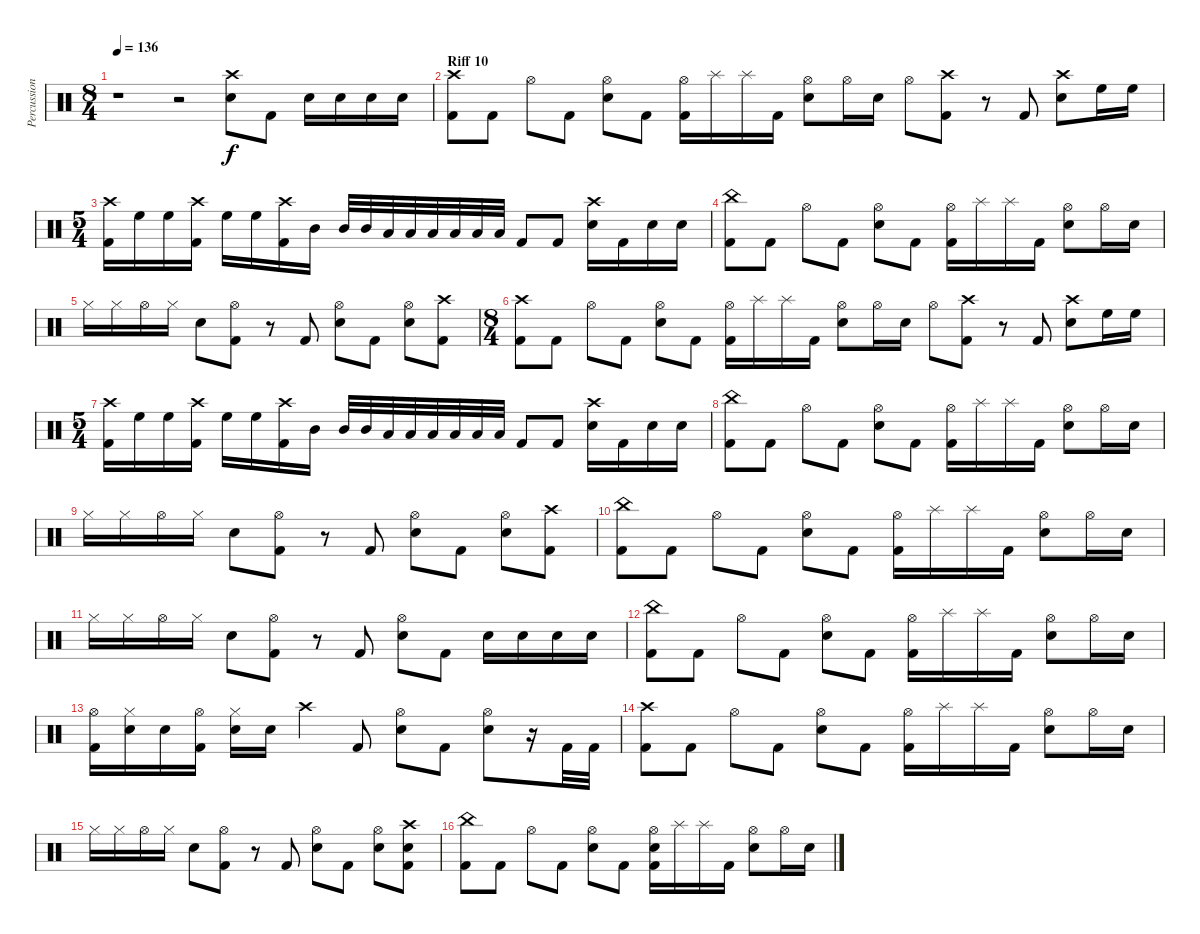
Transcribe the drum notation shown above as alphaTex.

\track ("Percussion" "Percussion") {instrument percussion}
\staff {score}
\articulation defaults
\ts (8 4)
\tempo 136
\clef neutral
\ks c
r.1{dy f} r.2 ("Crash high (hit)" "Electric Snare (hit)").8 "Kick (hit) 2".8 "Electric Snare (hit)".16 "Electric Snare (hit)".16 "Electric Snare (hit)".16 "Electric Snare (hit)".16 |
\section ("" "Riff 10")
("Crash high (hit)" "Kick (hit) 2").8 "Kick (hit) 2".8 "Hi-Hat (open)".8 "Kick (hit) 2".8 ("Hi-Hat (open)" "Electric Snare (hit)").8 "Kick (hit) 2".8 ("Hi-Hat (open)" "Kick (hit) 2").16 "Splash (hit)".16 "Splash (hit)".16 "Kick (hit) 2".16 ("Hi-Hat (open)" "Electric Snare (hit)").8 "Hi-Hat (open)".16 "Electric Snare (hit)".16 "Hi-Hat (open)".8 ("Crash high (hit)" "Kick (hit) 2").8 r.8 "Kick (hit) 2".8 ("Crash high (hit)" "Electric Snare (hit)").8 "High Floor Tom (hit)".16 "High Floor Tom (hit)".16 |
\ts (5 4)
("Crash high (hit)" "Kick (hit) 2").16 "High Floor Tom (hit)".16 "High Floor Tom (hit)".16 ("Crash high (hit)" "Kick (hit) 2").16 "High Floor Tom (hit)".16 "High Floor Tom (hit)".16 ("Crash high (hit)" "Kick (hit) 2").16 "Mid Tom (hit)".16 "Mid Tom (hit)".32 "Mid Tom (hit)".32 "Low Tom (hit)".32 "Low Tom (hit)".32 "Low Floor Tom (hit)".32 "Low Floor Tom (hit)".32 "Low Floor Tom (hit)".32 "Low Floor Tom (hit)".32 "Kick (hit) 2".8 "Kick (hit) 2".8 ("Crash high (hit)" "Electric Snare (hit)").16 "Kick (hit) 2".16 "Electric Snare (hit)".16 "Electric Snare (hit)".16 |
("China (hit)" "Kick (hit) 2").8 "Kick (hit) 2".8 "Hi-Hat (open)".8 "Kick (hit) 2".8 ("Hi-Hat (open)" "Electric Snare (hit)").8 "Kick (hit) 2".8 ("Hi-Hat (open)" "Kick (hit) 2").16 "Splash (hit)".16 "Splash (hit)".16 "Kick (hit) 2".16 ("Hi-Hat (open)" "Electric Snare (hit)").8 "Hi-Hat (open)".16 "Electric Snare (hit)".16 |
"Hi-Hat (closed)".16 "Hi-Hat (closed)".16 "Hi-Hat (open)".16 "Hi-Hat (closed)".16 "Electric Snare (hit)".8 ("Hi-Hat (open)" "Kick (hit) 2").8 r.8 "Kick (hit) 2".8 ("Hi-Hat (open)" "Electric Snare (hit)").8 "Kick (hit) 2".8 ("Hi-Hat (open)" "Electric Snare (hit)").8 ("Crash high (hit)" "Kick (hit) 2").8 |
\ts (8 4)
("Crash high (hit)" "Kick (hit) 2").8 "Kick (hit) 2".8 "Hi-Hat (open)".8 "Kick (hit) 2".8 ("Hi-Hat (open)" "Electric Snare (hit)").8 "Kick (hit) 2".8 ("Hi-Hat (open)" "Kick (hit) 2").16 "Splash (hit)".16 "Splash (hit)".16 "Kick (hit) 2".16 ("Hi-Hat (open)" "Electric Snare (hit)").8 "Hi-Hat (open)".16 "Electric Snare (hit)".16 "Hi-Hat (open)".8 ("Crash high (hit)" "Kick (hit) 2").8 r.8 "Kick (hit) 2".8 ("Crash high (hit)" "Electric Snare (hit)").8 "High Floor Tom (hit)".16 "High Floor Tom (hit)".16 |
\ts (5 4)
("Crash high (hit)" "Kick (hit) 2").16 "High Floor Tom (hit)".16 "High Floor Tom (hit)".16 ("Crash high (hit)" "Kick (hit) 2").16 "High Floor Tom (hit)".16 "High Floor Tom (hit)".16 ("Crash high (hit)" "Kick (hit) 2").16 "Mid Tom (hit)".16 "Mid Tom (hit)".32 "Mid Tom (hit)".32 "Low Tom (hit)".32 "Low Tom (hit)".32 "Low Floor Tom (hit)".32 "Low Floor Tom (hit)".32 "Low Floor Tom (hit)".32 "Low Floor Tom (hit)".32 "Kick (hit) 2".8 "Kick (hit) 2".8 ("Crash high (hit)" "Electric Snare (hit)").16 "Kick (hit) 2".16 "Electric Snare (hit)".16 "Electric Snare (hit)".16 |
("China (hit)" "Kick (hit) 2").8 "Kick (hit) 2".8 "Hi-Hat (open)".8 "Kick (hit) 2".8 ("Hi-Hat (open)" "Electric Snare (hit)").8 "Kick (hit) 2".8 ("Hi-Hat (open)" "Kick (hit) 2").16 "Splash (hit)".16 "Splash (hit)".16 "Kick (hit) 2".16 ("Hi-Hat (open)" "Electric Snare (hit)").8 "Hi-Hat (open)".16 "Electric Snare (hit)".16 |
"Hi-Hat (closed)".16 "Hi-Hat (closed)".16 "Hi-Hat (open)".16 "Hi-Hat (closed)".16 "Electric Snare (hit)".8 ("Hi-Hat (open)" "Kick (hit) 2").8 r.8 "Kick (hit) 2".8 ("Hi-Hat (open)" "Electric Snare (hit)").8 "Kick (hit) 2".8 ("Hi-Hat (open)" "Electric Snare (hit)").8 ("Crash high (hit)" "Kick (hit) 2").8 |
("China (hit)" "Kick (hit) 2").8 "Kick (hit) 2".8 "Hi-Hat (open)".8 "Kick (hit) 2".8 ("Hi-Hat (open)" "Electric Snare (hit)").8 "Kick (hit) 2".8 ("Hi-Hat (open)" "Kick (hit) 2").16 "Splash (hit)".16 "Splash (hit)".16 "Kick (hit) 2".16 ("Hi-Hat (open)" "Electric Snare (hit)").8 "Hi-Hat (open)".16 "Electric Snare (hit)".16 |
"Hi-Hat (closed)".16 "Hi-Hat (closed)".16 "Hi-Hat (open)".16 "Hi-Hat (closed)".16 "Electric Snare (hit)".8 ("Hi-Hat (open)" "Kick (hit) 2").8 r.8 "Kick (hit) 2".8 ("Hi-Hat (open)" "Electric Snare (hit)").8 "Kick (hit) 2".8 "Electric Snare (hit)".16 "Electric Snare (hit)".16 "Electric Snare (hit)".16 "Electric Snare (hit)".16 |
("China (hit)" "Kick (hit) 2").8 "Kick (hit) 2".8 "Hi-Hat (open)".8 "Kick (hit) 2".8 ("Hi-Hat (open)" "Electric Snare (hit)").8 "Kick (hit) 2".8 ("Hi-Hat (open)" "Kick (hit) 2").16 "Splash (hit)".16 "Splash (hit)".16 "Kick (hit) 2".16 ("Hi-Hat (open)" "Electric Snare (hit)").8 "Hi-Hat (open)".16 "Electric Snare (hit)".16 |
("Hi-Hat (open)" "Kick (hit) 2").16 ("Hi-Hat (closed)" "Electric Snare (hit)").16 "Electric Snare (hit)".16 ("Hi-Hat (open)" "Kick (hit) 2").16 ("Hi-Hat (closed)" "Electric Snare (hit)").16 "Electric Snare (hit)".16 "Crash high (hit)".4 "Kick (hit) 2".8 ("Hi-Hat (open)" "Electric Snare (hit)").8 "Kick (hit) 2".8 ("Hi-Hat (open)" "Electric Snare (hit)").8 r.16 "Kick (hit) 2".32 "Kick (hit) 2".32 |
("Crash high (hit)" "Kick (hit) 2").8 "Kick (hit) 2".8 "Hi-Hat (open)".8 "Kick (hit) 2".8 ("Hi-Hat (open)" "Electric Snare (hit)").8 "Kick (hit) 2".8 ("Hi-Hat (open)" "Kick (hit) 2").16 "Splash (hit)".16 "Splash (hit)".16 "Kick (hit) 2".16 ("Hi-Hat (open)" "Electric Snare (hit)").8 "Hi-Hat (open)".16 "Electric Snare (hit)".16 |
"Hi-Hat (closed)".16 "Hi-Hat (closed)".16 "Hi-Hat (open)".16 "Hi-Hat (closed)".16 "Electric Snare (hit)".8 ("Hi-Hat (open)" "Kick (hit) 2").8 r.8 "Kick (hit) 2".8 ("Hi-Hat (open)" "Electric Snare (hit)").8 "Kick (hit) 2".8 ("Hi-Hat (open)" "Electric Snare (hit)").8 ("Crash high (hit)" "Electric Snare (hit)" "Kick (hit) 2").8 |
("China (hit)" "Kick (hit) 2").8 "Kick (hit) 2".8 "Hi-Hat (open)".8 "Kick (hit) 2".8 ("Hi-Hat (open)" "Electric Snare (hit)").8 "Kick (hit) 2".8 ("Hi-Hat (open)" "Electric Snare (hit)" "Kick (hit) 2").16 "Splash (hit)".16 "Splash (hit)".16 "Kick (hit) 2".16 ("Hi-Hat (open)" "Electric Snare (hit)").8 "Hi-Hat (open)".16 "Electric Snare (hit)".16
